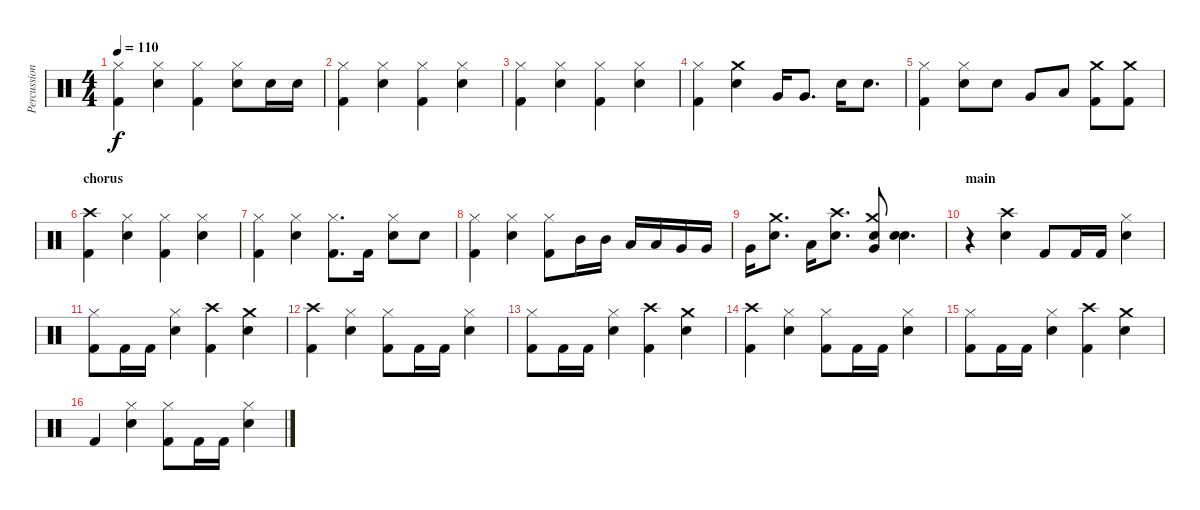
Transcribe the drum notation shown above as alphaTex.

\track ("Percussion" "Percussion") {instrument percussion}
\staff {score}
\articulation defaults
\ts (4 4)
\tempo 110
\clef neutral
\ks c
("Hi-Hat (closed)" "Kick (hit) 2").4{dy f} ("Hi-Hat (closed)" "Snare (hit) 2").4 ("Hi-Hat (closed)" "Kick (hit) 2").4 ("Hi-Hat (closed)" "Snare (hit) 2").8 "Snare (hit) 2".16 "Snare (hit) 2".16 |
("Hi-Hat (closed)" "Kick (hit) 2").4 ("Hi-Hat (closed)" "Snare (hit) 2").4 ("Hi-Hat (closed)" "Kick (hit) 2").4 ("Hi-Hat (closed)" "Snare (hit) 2").4 |
("Hi-Hat (closed)" "Kick (hit) 2").4 ("Hi-Hat (closed)" "Snare (hit) 2").4 ("Hi-Hat (closed)" "Kick (hit) 2").4 ("Hi-Hat (closed)" "Snare (hit) 2").4 |
("Hi-Hat (closed)" "Kick (hit) 2").4 ("Crash medium (hit)" "Snare (hit) 2").4 "Very Low Tom (hit)".16 "Very Low Tom (hit)".8{d} "Snare (hit) 2".16 "Snare (hit) 2".8{d} |
("Hi-Hat (closed)" "Kick (hit) 2").4 ("Hi-Hat (closed)" "Snare (hit) 2").8 "Snare (hit) 2".8 "Very Low Tom (hit)".8 "Low Tom (hit)".8 ("Crash medium (hit)" "Kick (hit) 2").8 ("Crash medium (hit)" "Kick (hit) 2").8 |
\section ("" "chorus")
("Crash high (hit)" "Kick (hit) 2").4 ("Hi-Hat (closed)" "Snare (hit) 2").4 ("Hi-Hat (closed)" "Kick (hit) 2").4 ("Hi-Hat (closed)" "Snare (hit) 2").4 |
("Hi-Hat (closed)" "Kick (hit) 2").4 ("Hi-Hat (closed)" "Snare (hit) 2").4 ("Hi-Hat (closed)" "Kick (hit) 2").8{d} "Kick (hit) 2".16 ("Hi-Hat (closed)" "Snare (hit) 2").8 "Snare (hit) 2".8 |
("Hi-Hat (closed)" "Kick (hit) 2").4 ("Hi-Hat (closed)" "Snare (hit) 2").4 ("Hi-Hat (closed)" "Kick (hit) 2").8 "Mid Tom (hit)".16 "Mid Tom (hit)".16 "Low Tom (hit)".16 "Low Tom (hit)".16 "Very Low Tom (hit)".16 "Very Low Tom (hit)".16 |
"Very Low Tom (hit)".16 ("Crash medium (hit)" "Snare (hit) 2").8{d} "Low Tom (hit)".16 ("Crash high (hit)" "Snare (hit) 2").8{d} ("Crash medium (hit)" "Very Low Tom (hit)" "Snare (hit) 2").8 ("Snare (hit)" "Snare (hit)").4{d} |
\section ("" "main")
r.4 ("Crash high (hit)" "Snare (hit) 2").4 "Kick (hit) 2".8 "Kick (hit) 2".16 "Kick (hit) 2".16 ("Hi-Hat (closed)" "Snare (hit) 2").4 |
("Hi-Hat (closed)" "Kick (hit) 2").8 "Kick (hit) 2".16 "Kick (hit) 2".16 ("Hi-Hat (closed)" "Snare (hit) 2").4 ("Crash high (hit)" "Kick (hit) 2").4 ("Crash medium (hit)" "Snare (hit) 2").4 |
("Crash high (hit)" "Kick (hit) 2").4 ("Hi-Hat (closed)" "Snare (hit) 2").4 ("Hi-Hat (closed)" "Kick (hit) 2").8 "Kick (hit) 2".16 "Kick (hit) 2".16 ("Hi-Hat (closed)" "Snare (hit) 2").4 |
("Hi-Hat (closed)" "Kick (hit) 2").8 "Kick (hit) 2".16 "Kick (hit) 2".16 ("Hi-Hat (closed)" "Snare (hit) 2").4 ("Crash high (hit)" "Kick (hit) 2").4 ("Crash medium (hit)" "Snare (hit) 2").4 |
("Crash high (hit)" "Kick (hit) 2").4 ("Hi-Hat (closed)" "Snare (hit) 2").4 ("Hi-Hat (closed)" "Kick (hit) 2").8 "Kick (hit) 2".16 "Kick (hit) 2".16 ("Hi-Hat (closed)" "Snare (hit) 2").4 |
("Hi-Hat (closed)" "Kick (hit) 2").8 "Kick (hit) 2".16 "Kick (hit) 2".16 ("Hi-Hat (closed)" "Snare (hit) 2").4 ("Crash high (hit)" "Kick (hit) 2").4 ("Crash medium (hit)" "Snare (hit) 2").4 |
"Kick (hit) 2".4 ("Hi-Hat (closed)" "Snare (hit) 2").4 ("Hi-Hat (closed)" "Kick (hit) 2").8 "Kick (hit) 2".16 "Kick (hit) 2".16 ("Hi-Hat (closed)" "Snare (hit) 2").4
